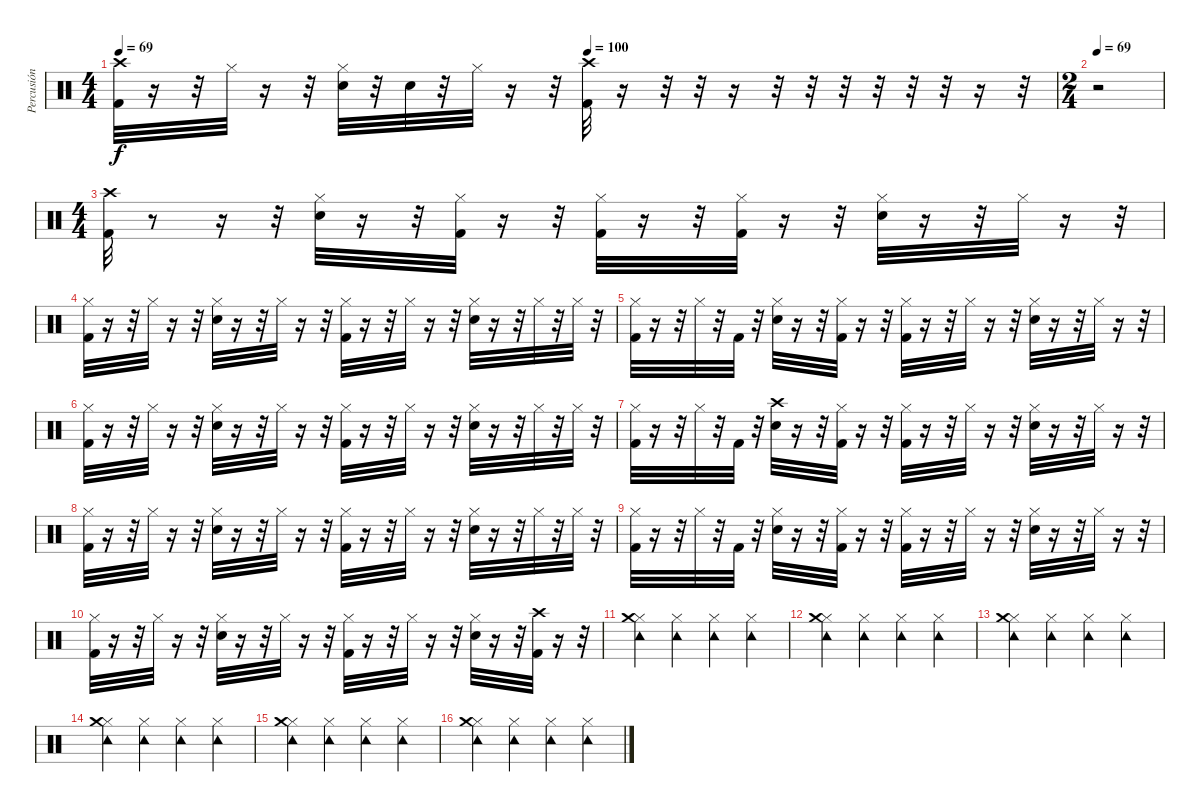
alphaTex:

\track ("Percusión" "Percusión") {instrument percussion}
\staff {score}
\articulation defaults
\ts (4 4)
\tempo 69
\tempo (100 0.5)
\clef neutral
\ks c
("Kick (hit) 2" "Crash high (hit)").32{dy f} r.16 r.32 "Hi-Hat (closed)".32 r.16 r.32 ("Snare (hit) 2" "Hi-Hat (closed)").32 r.32 "Snare (hit) 2".32 r.32 "Hi-Hat (closed)".32 r.16 r.32 ("Crash high (hit)" "Kick (hit) 2").32 r.16 r.32 r.32 r.16 r.32 r.32 r.32 r.32 r.32 r.32 r.16 r.32 |
\ts (2 4)
\tempo 69
r.2 |
\ts (4 4)
("Kick (hit) 2" "Crash high (hit)").32 r.8 r.16 r.32 ("Hi-Hat (closed)" "Snare (hit) 2").32 r.16 r.32 ("Hi-Hat (closed)" "Kick (hit) 2").32 r.16 r.32 ("Hi-Hat (closed)" "Kick (hit) 2").32 r.16 r.32 ("Hi-Hat (closed)" "Kick (hit) 2").32 r.16 r.32 ("Hi-Hat (closed)" "Snare (hit) 2").32 r.16 r.32 "Hi-Hat (closed)".32 r.16 r.32 |
("Hi-Hat (closed)" "Kick (hit) 2").32 r.16 r.32 "Hi-Hat (closed)".32 r.16 r.32 ("Snare (hit) 2" "Hi-Hat (closed)").32 r.16 r.32 "Hi-Hat (closed)".32 r.16 r.32 ("Hi-Hat (closed)" "Kick (hit) 2").32 r.16 r.32 "Hi-Hat (closed)".32 r.16 r.32 ("Hi-Hat (closed)" "Snare (hit) 2").32 r.16 r.32 "Hi-Hat (closed)".32 r.32 "Hi-Hat (closed)".32 r.32 |
("Hi-Hat (closed)" "Kick (hit) 2").32 r.16 r.32 "Hi-Hat (closed)".32 r.32 "Kick (hit) 2".32 r.32 ("Snare (hit) 2" "Hi-Hat (closed)").32 r.16 r.32 ("Kick (hit) 2" "Hi-Hat (closed)").32 r.16 r.32 ("Hi-Hat (closed)" "Kick (hit) 2").32 r.16 r.32 "Hi-Hat (closed)".32 r.16 r.32 ("Snare (hit) 2" "Hi-Hat (closed)").32 r.16 r.32 "Hi-Hat (closed)".32 r.16 r.32 |
("Hi-Hat (closed)" "Kick (hit) 2").32 r.16 r.32 "Hi-Hat (closed)".32 r.16 r.32 ("Snare (hit) 2" "Hi-Hat (closed)").32 r.16 r.32 "Hi-Hat (closed)".32 r.16 r.32 ("Kick (hit) 2" "Hi-Hat (closed)").32 r.16 r.32 "Hi-Hat (closed)".32 r.16 r.32 ("Hi-Hat (closed)" "Snare (hit) 2").32 r.16 r.32 "Hi-Hat (closed)".32 r.32 "Hi-Hat (closed)".32 r.32 |
("Hi-Hat (closed)" "Kick (hit) 2").32 r.16 r.32 "Hi-Hat (closed)".32 r.32 "Kick (hit) 2".32 r.32 ("Crash high (hit)" "Snare (hit) 2").32 r.16 r.32 ("Hi-Hat (closed)" "Kick (hit) 2").32 r.16 r.32 ("Hi-Hat (closed)" "Kick (hit) 2").32 r.16 r.32 "Hi-Hat (closed)".32 r.16 r.32 ("Snare (hit) 2" "Hi-Hat (closed)").32 r.16 r.32 "Hi-Hat (closed)".32 r.16 r.32 |
("Hi-Hat (closed)" "Kick (hit) 2").32 r.16 r.32 "Hi-Hat (closed)".32 r.16 r.32 ("Snare (hit) 2" "Hi-Hat (closed)").32 r.16 r.32 "Hi-Hat (closed)".32 r.16 r.32 ("Kick (hit) 2" "Hi-Hat (closed)").32 r.16 r.32 "Hi-Hat (closed)".32 r.16 r.32 ("Hi-Hat (closed)" "Snare (hit) 2").32 r.16 r.32 "Hi-Hat (closed)".32 r.32 "Hi-Hat (closed)".32 r.32 |
("Hi-Hat (closed)" "Kick (hit) 2").32 r.16 r.32 "Hi-Hat (closed)".32 r.32 "Kick (hit) 2".32 r.32 ("Snare (hit) 2" "Hi-Hat (closed)").32 r.16 r.32 ("Kick (hit) 2" "Hi-Hat (closed)").32 r.16 r.32 ("Hi-Hat (closed)" "Kick (hit) 2").32 r.16 r.32 "Hi-Hat (closed)".32 r.16 r.32 ("Snare (hit) 2" "Hi-Hat (closed)").32 r.16 r.32 "Hi-Hat (closed)".32 r.16 r.32 |
("Hi-Hat (closed)" "Kick (hit) 2").32 r.16 r.32 "Hi-Hat (closed)".32 r.16 r.32 ("Snare (hit) 2" "Hi-Hat (closed)").32 r.16 r.32 "Hi-Hat (closed)".32 r.16 r.32 ("Hi-Hat (closed)" "Kick (hit) 2").32 r.16 r.32 "Hi-Hat (closed)".32 r.16 r.32 ("Snare (hit) 2" "Hi-Hat (closed)").32 r.16 r.32 ("Crash high (hit)" "Kick (hit) 2").32 r.16 r.32 |
("Tambourine (hit)" "Hi-Hat (closed)" "Crash medium (hit)").4 ("Tambourine (hit)" "Hi-Hat (closed)").4 ("Tambourine (hit)" "Hi-Hat (closed)").4 ("Tambourine (hit)" "Hi-Hat (closed)").4 |
("Tambourine (hit)" "Hi-Hat (closed)" "Crash medium (hit)").4 ("Tambourine (hit)" "Hi-Hat (closed)").4 ("Tambourine (hit)" "Hi-Hat (closed)").4 ("Tambourine (hit)" "Hi-Hat (closed)").4 |
("Tambourine (hit)" "Hi-Hat (closed)" "Crash medium (hit)").4 ("Tambourine (hit)" "Hi-Hat (closed)").4 ("Tambourine (hit)" "Hi-Hat (closed)").4 ("Tambourine (hit)" "Hi-Hat (closed)").4 |
("Tambourine (hit)" "Hi-Hat (closed)" "Crash medium (hit)").4 ("Tambourine (hit)" "Hi-Hat (closed)").4 ("Tambourine (hit)" "Hi-Hat (closed)").4 ("Tambourine (hit)" "Hi-Hat (closed)").4 |
("Tambourine (hit)" "Hi-Hat (closed)" "Crash medium (hit)").4 ("Tambourine (hit)" "Hi-Hat (closed)").4 ("Tambourine (hit)" "Hi-Hat (closed)").4 ("Tambourine (hit)" "Hi-Hat (closed)").4 |
("Tambourine (hit)" "Hi-Hat (closed)" "Crash medium (hit)").4 ("Tambourine (hit)" "Hi-Hat (closed)").4 ("Tambourine (hit)" "Hi-Hat (closed)").4 ("Tambourine (hit)" "Hi-Hat (closed)").4
